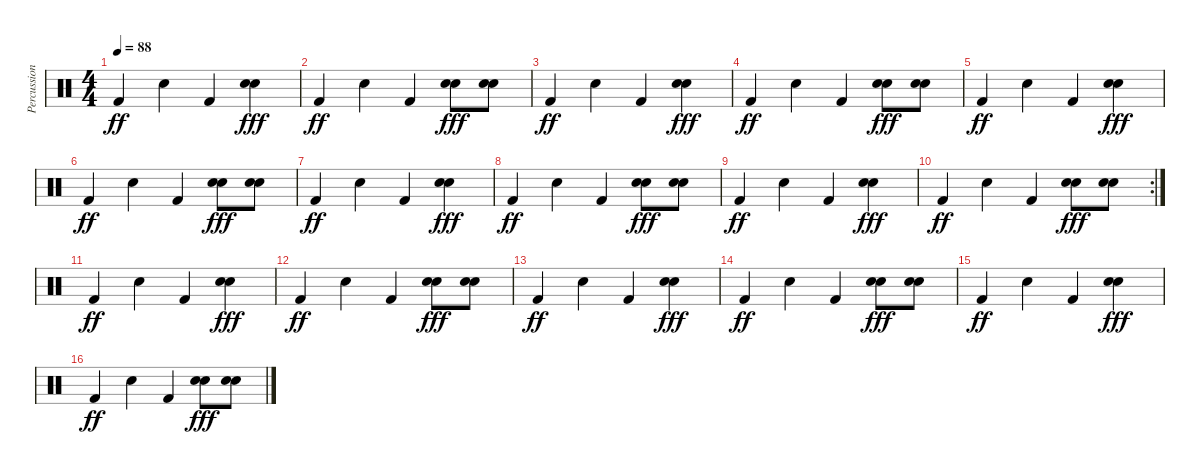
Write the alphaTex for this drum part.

\track ("Percussion" "Percussion") {instrument percussion}
\staff {score}
\articulation defaults
\ts (4 4)
\tempo 88
\clef neutral
\ks c "Kick (hit) 2".4{dy ff} "Electric Snare (hit)".4 "Kick (hit) 2".4
("Electric Snare (hit)" "Hand Clap (hit)").4{dy fff} |
"Kick (hit) 2".4{dy ff} "Electric Snare (hit)".4 "Kick (hit) 2".4 ("Electric Snare (hit)" "Hand Clap (hit)").8{dy fff} ("Electric Snare (hit)" "Hand Clap (hit)").8 |
"Kick (hit) 2".4{dy ff} "Electric Snare (hit)".4 "Kick (hit) 2".4 ("Electric Snare (hit)" "Hand Clap (hit)").4{dy fff} |
"Kick (hit) 2".4{dy ff} "Electric Snare (hit)".4 "Kick (hit) 2".4 ("Electric Snare (hit)" "Hand Clap (hit)").8{dy fff} ("Electric Snare (hit)" "Hand Clap (hit)").8 |
"Kick (hit) 2".4{dy ff} "Electric Snare (hit)".4 "Kick (hit) 2".4 ("Electric Snare (hit)" "Hand Clap (hit)").4{dy fff} |
"Kick (hit) 2".4{dy ff} "Electric Snare (hit)".4 "Kick (hit) 2".4 ("Electric Snare (hit)" "Hand Clap (hit)").8{dy fff} ("Electric Snare (hit)" "Hand Clap (hit)").8 |
"Kick (hit) 2".4{dy ff} "Electric Snare (hit)".4 "Kick (hit) 2".4 ("Electric Snare (hit)" "Hand Clap (hit)").4{dy fff} |
"Kick (hit) 2".4{dy ff} "Electric Snare (hit)".4 "Kick (hit) 2".4 ("Electric Snare (hit)" "Hand Clap (hit)").8{dy fff} ("Electric Snare (hit)" "Hand Clap (hit)").8 |
"Kick (hit) 2".4{dy ff} "Electric Snare (hit)".4 "Kick (hit) 2".4 ("Electric Snare (hit)" "Hand Clap (hit)").4{dy fff} |
\rc 2 "Kick (hit) 2".4{dy ff} "Electric Snare (hit)".4 "Kick (hit) 2".4
("Electric Snare (hit)" "Hand Clap (hit)").8{dy fff} ("Electric Snare (hit)" "Hand Clap (hit)").8 |
"Kick (hit) 2".4{dy ff} "Electric Snare (hit)".4 "Kick (hit) 2".4 ("Electric Snare (hit)" "Hand Clap (hit)").4{dy fff} |
"Kick (hit) 2".4{dy ff} "Electric Snare (hit)".4 "Kick (hit) 2".4 ("Electric Snare (hit)" "Hand Clap (hit)").8{dy fff} ("Electric Snare (hit)" "Hand Clap (hit)").8 |
"Kick (hit) 2".4{dy ff} "Electric Snare (hit)".4 "Kick (hit) 2".4 ("Electric Snare (hit)" "Hand Clap (hit)").4{dy fff} |
"Kick (hit) 2".4{dy ff} "Electric Snare (hit)".4 "Kick (hit) 2".4 ("Electric Snare (hit)" "Hand Clap (hit)").8{dy fff} ("Electric Snare (hit)" "Hand Clap (hit)").8 |
"Kick (hit) 2".4{dy ff} "Electric Snare (hit)".4 "Kick (hit) 2".4 ("Electric Snare (hit)" "Hand Clap (hit)").4{dy fff} |
"Kick (hit) 2".4{dy ff} "Electric Snare (hit)".4 "Kick (hit) 2".4 ("Electric Snare (hit)" "Hand Clap (hit)").8{dy fff} ("Electric Snare (hit)" "Hand Clap (hit)").8
